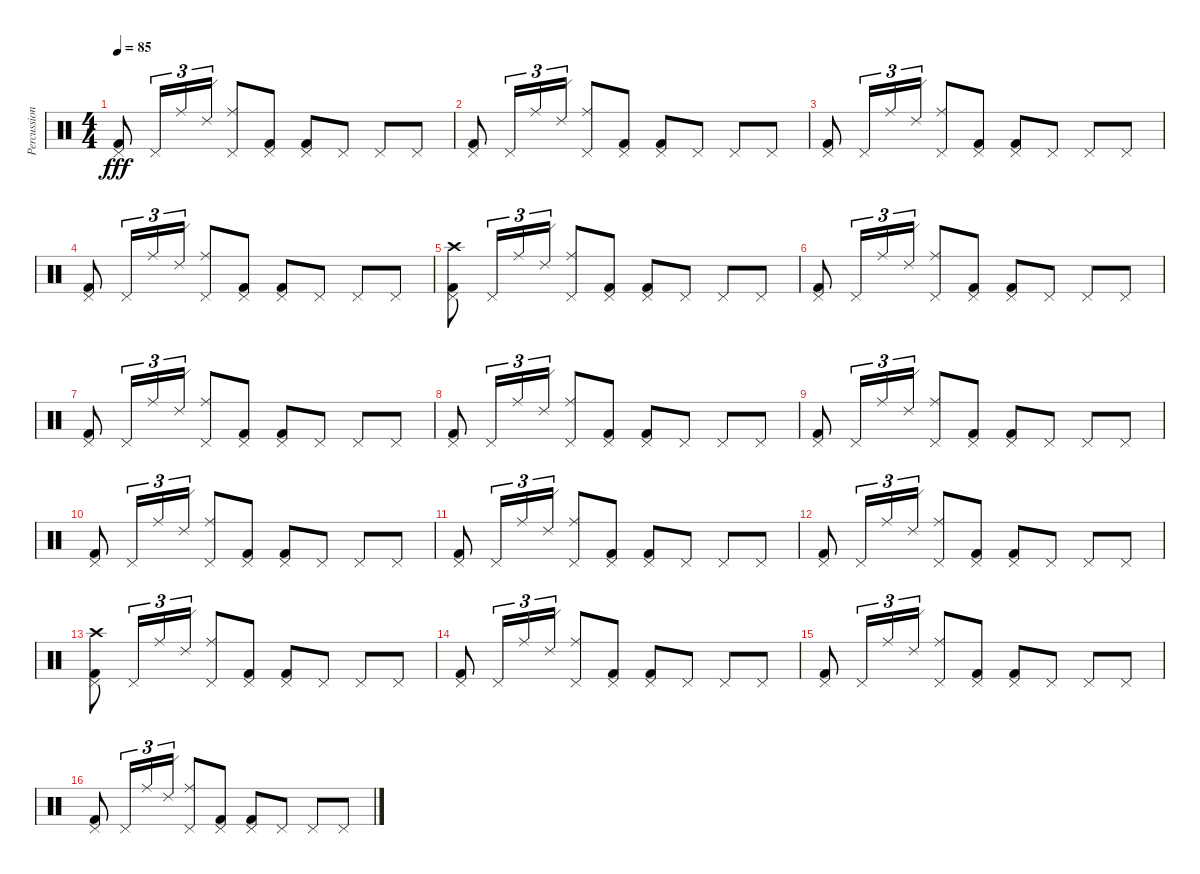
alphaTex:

\track ("Percussion" "Percussion") {instrument percussion}
\staff {score}
\articulation defaults
\ts (4 4)
\tempo 85
\clef neutral
\ks c
("Kick (hit) 2" "Pedal Hi-Hat (hit)").8{dy fff} "Pedal Hi-Hat (hit)".16{tu (3 2)} "Ride (middle)".16{tu (3 2)} "Ride (edge) 2".16{tu (3 2)} ("Ride (middle)" "Pedal Hi-Hat (hit)").8 ("Kick (hit) 2" "Pedal Hi-Hat (hit)").8 ("Kick (hit) 2" "Pedal Hi-Hat (hit)").8 "Pedal Hi-Hat (hit)".8 "Pedal Hi-Hat (hit)".8 "Pedal Hi-Hat (hit)".8 |
("Kick (hit) 2" "Pedal Hi-Hat (hit)").8 "Pedal Hi-Hat (hit)".16{tu (3 2)} "Ride (middle)".16{tu (3 2)} "Ride (edge) 2".16{tu (3 2)} ("Ride (middle)" "Pedal Hi-Hat (hit)").8 ("Kick (hit) 2" "Pedal Hi-Hat (hit)").8 ("Kick (hit) 2" "Pedal Hi-Hat (hit)").8 "Pedal Hi-Hat (hit)".8 "Pedal Hi-Hat (hit)".8 "Pedal Hi-Hat (hit)".8 |
("Kick (hit) 2" "Pedal Hi-Hat (hit)").8 "Pedal Hi-Hat (hit)".16{tu (3 2)} "Ride (middle)".16{tu (3 2)} "Ride (edge) 2".16{tu (3 2)} ("Ride (middle)" "Pedal Hi-Hat (hit)").8 ("Kick (hit) 2" "Pedal Hi-Hat (hit)").8 ("Kick (hit) 2" "Pedal Hi-Hat (hit)").8 "Pedal Hi-Hat (hit)".8 "Pedal Hi-Hat (hit)".8 "Pedal Hi-Hat (hit)".8 |
("Kick (hit) 2" "Pedal Hi-Hat (hit)").8 "Pedal Hi-Hat (hit)".16{tu (3 2)} "Ride (middle)".16{tu (3 2)} "Ride (edge) 2".16{tu (3 2)} ("Ride (middle)" "Pedal Hi-Hat (hit)").8 ("Kick (hit) 2" "Pedal Hi-Hat (hit)").8 ("Kick (hit) 2" "Pedal Hi-Hat (hit)").8 "Pedal Hi-Hat (hit)".8 "Pedal Hi-Hat (hit)".8 "Pedal Hi-Hat (hit)".8 |
("Kick (hit) 2" "Crash high (hit)" "Pedal Hi-Hat (hit)").8 "Pedal Hi-Hat (hit)".16{tu (3 2)} "Ride (middle)".16{tu (3 2)} "Ride (edge) 2".16{tu (3 2)} ("Ride (middle)" "Pedal Hi-Hat (hit)").8 ("Kick (hit) 2" "Pedal Hi-Hat (hit)").8 ("Kick (hit) 2" "Pedal Hi-Hat (hit)").8 "Pedal Hi-Hat (hit)".8 "Pedal Hi-Hat (hit)".8 "Pedal Hi-Hat (hit)".8 |
("Kick (hit) 2" "Pedal Hi-Hat (hit)").8 "Pedal Hi-Hat (hit)".16{tu (3 2)} "Ride (middle)".16{tu (3 2)} "Ride (edge) 2".16{tu (3 2)} ("Ride (middle)" "Pedal Hi-Hat (hit)").8 ("Kick (hit) 2" "Pedal Hi-Hat (hit)").8 ("Kick (hit) 2" "Pedal Hi-Hat (hit)").8 "Pedal Hi-Hat (hit)".8 "Pedal Hi-Hat (hit)".8 "Pedal Hi-Hat (hit)".8 |
("Kick (hit) 2" "Pedal Hi-Hat (hit)").8 "Pedal Hi-Hat (hit)".16{tu (3 2)} "Ride (middle)".16{tu (3 2)} "Ride (edge) 2".16{tu (3 2)} ("Ride (middle)" "Pedal Hi-Hat (hit)").8 ("Kick (hit) 2" "Pedal Hi-Hat (hit)").8 ("Kick (hit) 2" "Pedal Hi-Hat (hit)").8 "Pedal Hi-Hat (hit)".8 "Pedal Hi-Hat (hit)".8 "Pedal Hi-Hat (hit)".8 |
("Kick (hit) 2" "Pedal Hi-Hat (hit)").8 "Pedal Hi-Hat (hit)".16{tu (3 2)} "Ride (middle)".16{tu (3 2)} "Ride (edge) 2".16{tu (3 2)} ("Ride (middle)" "Pedal Hi-Hat (hit)").8 ("Kick (hit) 2" "Pedal Hi-Hat (hit)").8 ("Kick (hit) 2" "Pedal Hi-Hat (hit)").8 "Pedal Hi-Hat (hit)".8 "Pedal Hi-Hat (hit)".8 "Pedal Hi-Hat (hit)".8 |
("Kick (hit) 2" "Pedal Hi-Hat (hit)").8 "Pedal Hi-Hat (hit)".16{tu (3 2)} "Ride (middle)".16{tu (3 2)} "Ride (edge) 2".16{tu (3 2)} ("Ride (middle)" "Pedal Hi-Hat (hit)").8 ("Kick (hit) 2" "Pedal Hi-Hat (hit)").8 ("Kick (hit) 2" "Pedal Hi-Hat (hit)").8 "Pedal Hi-Hat (hit)".8 "Pedal Hi-Hat (hit)".8 "Pedal Hi-Hat (hit)".8 |
("Kick (hit) 2" "Pedal Hi-Hat (hit)").8 "Pedal Hi-Hat (hit)".16{tu (3 2)} "Ride (middle)".16{tu (3 2)} "Ride (edge) 2".16{tu (3 2)} ("Ride (middle)" "Pedal Hi-Hat (hit)").8 ("Kick (hit) 2" "Pedal Hi-Hat (hit)").8 ("Kick (hit) 2" "Pedal Hi-Hat (hit)").8 "Pedal Hi-Hat (hit)".8 "Pedal Hi-Hat (hit)".8 "Pedal Hi-Hat (hit)".8 |
("Kick (hit) 2" "Pedal Hi-Hat (hit)").8 "Pedal Hi-Hat (hit)".16{tu (3 2)} "Ride (middle)".16{tu (3 2)} "Ride (edge) 2".16{tu (3 2)} ("Ride (middle)" "Pedal Hi-Hat (hit)").8 ("Kick (hit) 2" "Pedal Hi-Hat (hit)").8 ("Kick (hit) 2" "Pedal Hi-Hat (hit)").8 "Pedal Hi-Hat (hit)".8 "Pedal Hi-Hat (hit)".8 "Pedal Hi-Hat (hit)".8 |
("Kick (hit) 2" "Pedal Hi-Hat (hit)").8 "Pedal Hi-Hat (hit)".16{tu (3 2)} "Ride (middle)".16{tu (3 2)} "Ride (edge) 2".16{tu (3 2)} ("Ride (middle)" "Pedal Hi-Hat (hit)").8 ("Kick (hit) 2" "Pedal Hi-Hat (hit)").8 ("Kick (hit) 2" "Pedal Hi-Hat (hit)").8 "Pedal Hi-Hat (hit)".8 "Pedal Hi-Hat (hit)".8 "Pedal Hi-Hat (hit)".8 |
("Kick (hit) 2" "Crash high (hit)" "Pedal Hi-Hat (hit)").8 "Pedal Hi-Hat (hit)".16{tu (3 2)} "Ride (middle)".16{tu (3 2)} "Ride (edge) 2".16{tu (3 2)} ("Ride (middle)" "Pedal Hi-Hat (hit)").8 ("Kick (hit) 2" "Pedal Hi-Hat (hit)").8 ("Kick (hit) 2" "Pedal Hi-Hat (hit)").8 "Pedal Hi-Hat (hit)".8 "Pedal Hi-Hat (hit)".8 "Pedal Hi-Hat (hit)".8 |
("Kick (hit) 2" "Pedal Hi-Hat (hit)").8 "Pedal Hi-Hat (hit)".16{tu (3 2)} "Ride (middle)".16{tu (3 2)} "Ride (edge) 2".16{tu (3 2)} ("Ride (middle)" "Pedal Hi-Hat (hit)").8 ("Kick (hit) 2" "Pedal Hi-Hat (hit)").8 ("Kick (hit) 2" "Pedal Hi-Hat (hit)").8 "Pedal Hi-Hat (hit)".8 "Pedal Hi-Hat (hit)".8 "Pedal Hi-Hat (hit)".8 |
("Kick (hit) 2" "Pedal Hi-Hat (hit)").8 "Pedal Hi-Hat (hit)".16{tu (3 2)} "Ride (middle)".16{tu (3 2)} "Ride (edge) 2".16{tu (3 2)} ("Ride (middle)" "Pedal Hi-Hat (hit)").8 ("Kick (hit) 2" "Pedal Hi-Hat (hit)").8 ("Kick (hit) 2" "Pedal Hi-Hat (hit)").8 "Pedal Hi-Hat (hit)".8 "Pedal Hi-Hat (hit)".8 "Pedal Hi-Hat (hit)".8 |
("Kick (hit) 2" "Pedal Hi-Hat (hit)").8 "Pedal Hi-Hat (hit)".16{tu (3 2)} "Ride (middle)".16{tu (3 2)} "Ride (edge) 2".16{tu (3 2)} ("Ride (middle)" "Pedal Hi-Hat (hit)").8 ("Kick (hit) 2" "Pedal Hi-Hat (hit)").8 ("Kick (hit) 2" "Pedal Hi-Hat (hit)").8 "Pedal Hi-Hat (hit)".8 "Pedal Hi-Hat (hit)".8 "Pedal Hi-Hat (hit)".8
